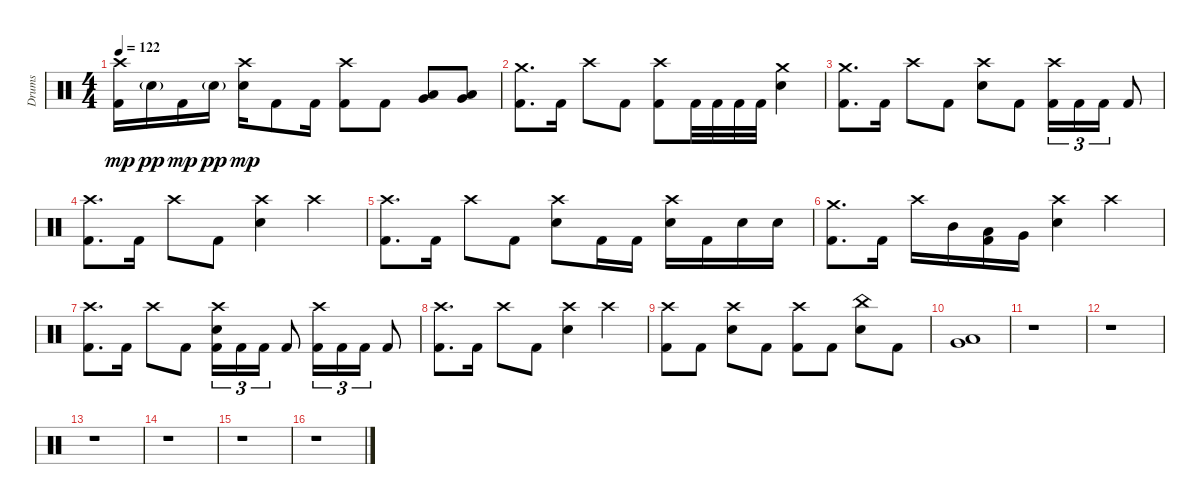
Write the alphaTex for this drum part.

\track ("Drums" "Drums") {instrument percussion}
\staff {score}
\articulation defaults
\ts (4 4)
\tempo 122
\clef neutral
\ks c
("Crash high (hit)" "Kick (hit) 2").16{dy mp} "Electric Snare (hit)"{g}.16{dy pp} "Kick (hit) 2".16{dy mp} "Electric Snare (hit)"{g}.16{dy pp} ("Crash high (hit)" "Electric Snare (hit)").16{dy mp} "Kick (hit) 2".8 "Kick (hit) 2".16 ("Crash high (hit)" "Kick (hit) 2").8 "Kick (hit) 2".8 ("Low Floor Tom (hit)" "Very Low Tom (hit)").8 ("Low Floor Tom (hit)" "Very Low Tom (hit)").8 |
("Crash medium (hit)" "Kick (hit) 2").8{d} "Kick (hit) 2".16 "Crash high (hit)".8 "Kick (hit) 2".8 ("Crash high (hit)" "Kick (hit) 2").8 "Kick (hit) 2".32 "Kick (hit) 2".32 "Kick (hit) 2".32 "Kick (hit) 2".32 ("Electric Snare (hit)" "Crash medium (hit)").4 |
("Crash medium (hit)" "Kick (hit) 2").8{d} "Kick (hit) 2".16 "Crash high (hit)".8 "Kick (hit) 2".8 ("Crash high (hit)" "Electric Snare (hit)").8 "Kick (hit) 2".8 ("Crash high (hit)" "Kick (hit) 2").16{tu (3 2)} "Kick (hit) 2".16{tu (3 2)} "Kick (hit) 2".16{tu (3 2)} "Kick (hit) 2".8 |
("Crash high (hit)" "Kick (hit) 2").8{d} "Kick (hit) 2".16 "Crash high (hit)".8 "Kick (hit) 2".8 ("Crash high (hit)" "Electric Snare (hit)").4 "Crash high (hit)".4 |
("Crash high (hit)" "Kick (hit) 2").8{d} "Kick (hit) 2".16 "Crash high (hit)".8 "Kick (hit) 2".8 ("Crash high (hit)" "Electric Snare (hit)").8 "Kick (hit) 2".16 "Kick (hit) 2".16 ("Crash high (hit)" "Electric Snare (hit)").16 "Kick (hit) 2".16 "Electric Snare (hit)".16 "Electric Snare (hit)".16 |
("Crash medium (hit)" "Kick (hit) 2").8{d} "Kick (hit) 2".16 "Crash high (hit)".16 "Mid Tom (hit)".16 ("Low Tom (hit)" "Kick (hit) 2").16 "Very Low Tom (hit)".16 ("Crash high (hit)" "Electric Snare (hit)").4 "Crash high (hit)".4 |
("Crash high (hit)" "Kick (hit) 2").8{d} "Kick (hit) 2".16 "Crash high (hit)".8 "Kick (hit) 2".8 ("Crash high (hit)" "Electric Snare (hit)" "Kick (hit) 2").16{tu (3 2)} "Kick (hit) 2".16{tu (3 2)} "Kick (hit) 2".16{tu (3 2)} "Kick (hit) 2".8 ("Crash high (hit)" "Kick (hit) 2").16{tu (3 2)} "Kick (hit) 2".16{tu (3 2)} "Kick (hit) 2".16{tu (3 2)} "Kick (hit) 2".8 |
("Crash high (hit)" "Kick (hit) 2").8{d} "Kick (hit) 2".16 "Crash high (hit)".8 "Kick (hit) 2".8 ("Crash high (hit)" "Electric Snare (hit)").4 "Crash high (hit)".4 |
("Crash high (hit)" "Kick (hit) 2").8 "Kick (hit) 2".8 ("Crash high (hit)" "Electric Snare (hit)").8 "Kick (hit) 2".8 ("Crash high (hit)" "Kick (hit) 2").8 "Kick (hit) 2".8 ("China (hit)" "Electric Snare (hit)").8 "Kick (hit) 2".8 |
("Low Floor Tom (hit)" "Very Low Tom (hit)").1 |
r.1 |
r.1 |
r.1 |
r.1 |
r.1 |
r.1
